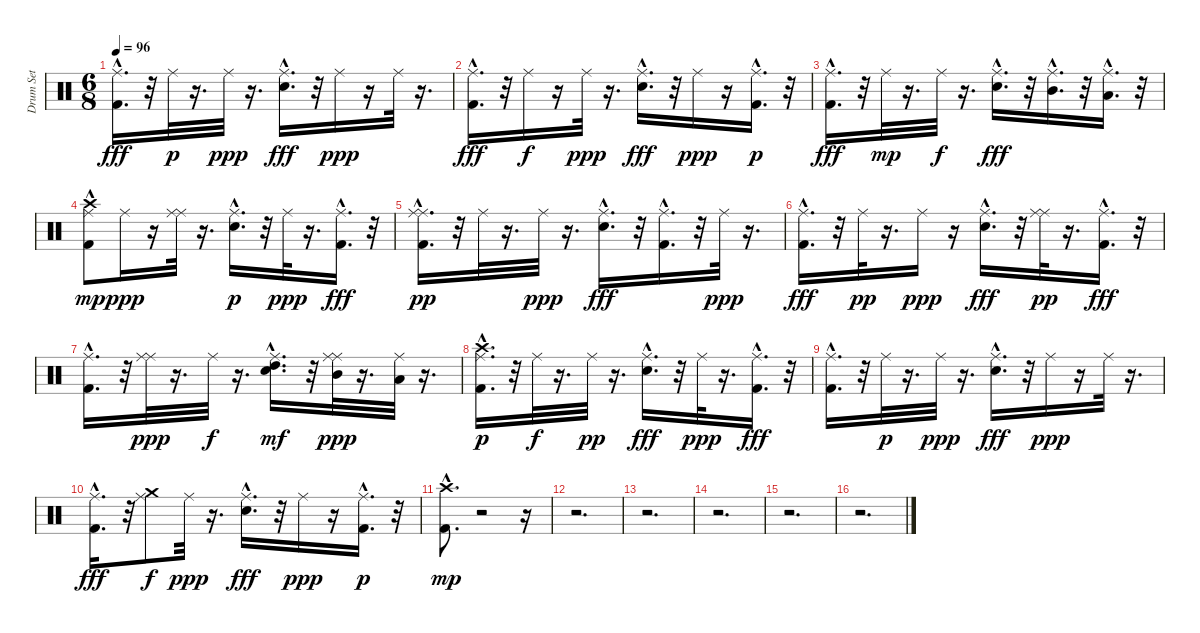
\track ("Drum Set" "Drum Set") {instrument percussion}
\staff {score}
\articulation defaults
\ts (6 8)
\tempo 96
\clef neutral
\ks c
("Ride (middle)" "Kick (hit) 2"{hac}).16{d dy fff} r.32 "Ride (middle)".32{dy p} r.16{d} "Ride (middle)".32{dy ppp} r.16{d} ("Ride (middle)" "Snare (hit) 2"{hac}).16{d dy fff} r.32 "Ride (middle)".16{dy ppp} r.16 "Ride (middle)".32 r.16{d} |
("Ride (middle)" "Kick (hit) 2"{hac}).16{d dy fff} r.32 "Ride (middle)".16{dy f} r.16 "Ride (middle)".32{dy ppp} r.16{d} ("Ride (middle)" "Snare (hit) 2"{hac}).16{d dy fff} r.32 "Ride (middle)".16{dy ppp} r.16 ("Kick (hit) 2"{hac} "Ride (middle)").16{d dy p} r.32 |
("Ride (middle)" "Kick (hit) 2"{hac}).16{d dy fff} r.32 "Ride (middle)".32{dy mp} r.16{d} "Ride (middle)".32{dy f} r.16{d} ("Ride (middle)" "Snare (hit) 2"{hac}).16{d dy fff} r.32 ("Ride (middle)" "Mid Tom (hit)"{hac}).16{d} r.32 ("Ride (middle)" "Low Tom (hit)"{hac}).16{d} r.32 |
("Crash high (hit)" "Kick (hit) 2"{hac} "Ride (middle)").8{dy mp} "Ride (middle)".16{dy ppp} r.16 ("Ride (middle)" "Ride (middle)").32 r.16{d} ("Snare (hit) 2"{hac} "Ride (middle)"{hac}).16{d dy p} r.32 "Ride (middle)".32{dy ppp} r.16{d} ("Ride (middle)" "Kick (hit) 2"{hac}).16{d dy fff} r.32 |
("Ride (middle)" "Kick (hit) 2"{hac} "Ride (middle)").16{d dy pp} r.32 "Ride (middle)".32 r.16{d} "Ride (middle)".32{dy ppp} r.16{d} ("Ride (middle)" "Snare (hit) 2"{hac}).16{d dy fff} r.32 ("Ride (middle)" "Kick (hit) 2"{hac}).16{d} r.32 "Ride (middle)".32{dy ppp} r.16{d} |
("Ride (middle)" "Kick (hit) 2"{hac}).16{d dy fff} r.32 "Ride (middle)".32{dy pp} r.16{d} "Ride (middle)".16{dy ppp} r.16 ("Ride (middle)" "Snare (hit) 2"{hac}).16{d dy fff} r.32 ("Ride (middle)" "Ride (middle)").32{dy pp} r.16{d} ("Ride (middle)" "Kick (hit) 2"{hac}).16{d dy fff} r.32 |
("Ride (middle)" "Kick (hit) 2"{hac}).16{d} r.32 ("Ride (middle)" "Ride (middle)").32{dy ppp} r.16{d} "Ride (middle)".32{dy f} r.16{d} ("Ride (middle)" "Snare (hit) 2"{hac} "High Tom (hit)").16{d dy mf} r.32 ("Mid Tom (hit)" "Ride (middle)" "Ride (middle)").32{dy ppp} r.16{d} ("Low Tom (hit)" "Ride (middle)").32 r.16{d} |
("Crash high (hit)" "Kick (hit) 2"{hac} "Ride (middle)").16{d dy p} r.32 "Ride (middle)".32{dy f} r.16{d} "Ride (middle)".32{dy pp} r.16{d} ("Ride (middle)" "Snare (hit) 2"{hac}).16{d dy fff} r.32 "Ride (middle)".32{dy ppp} r.16{d} ("Ride (middle)" "Kick (hit) 2"{hac}).16{d dy fff} r.32 |
("Ride (middle)" "Kick (hit) 2"{hac}).16{d} r.32 "Ride (middle)".32{dy p} r.16{d} "Ride (middle)".32{dy ppp} r.16{d} ("Ride (middle)" "Snare (hit) 2"{hac}).16{d dy fff} r.32 "Ride (middle)".16{dy ppp} r.16 "Ride (middle)".32 r.16{d} |
("Ride (middle)" "Kick (hit) 2"{hac}).16{d dy fff} r.32 ("Crash medium (hit)" "Ride (middle)").8{dy f} "Ride (middle)".32{dy ppp} r.16{d} ("Ride (middle)" "Snare (hit) 2"{hac}).16{d dy fff} r.32 "Ride (middle)".16{dy ppp} r.16 ("Kick (hit) 2"{hac} "Ride (middle)").16{d dy p} r.32 |
("Kick (hit) 2"{hac} "Crash high (hit)"{hac}).8{d dy mp} r.2 r.16 |
r.2{d} |
r.2{d} |
r.2{d} |
r.2{d} |
r.2{d}
